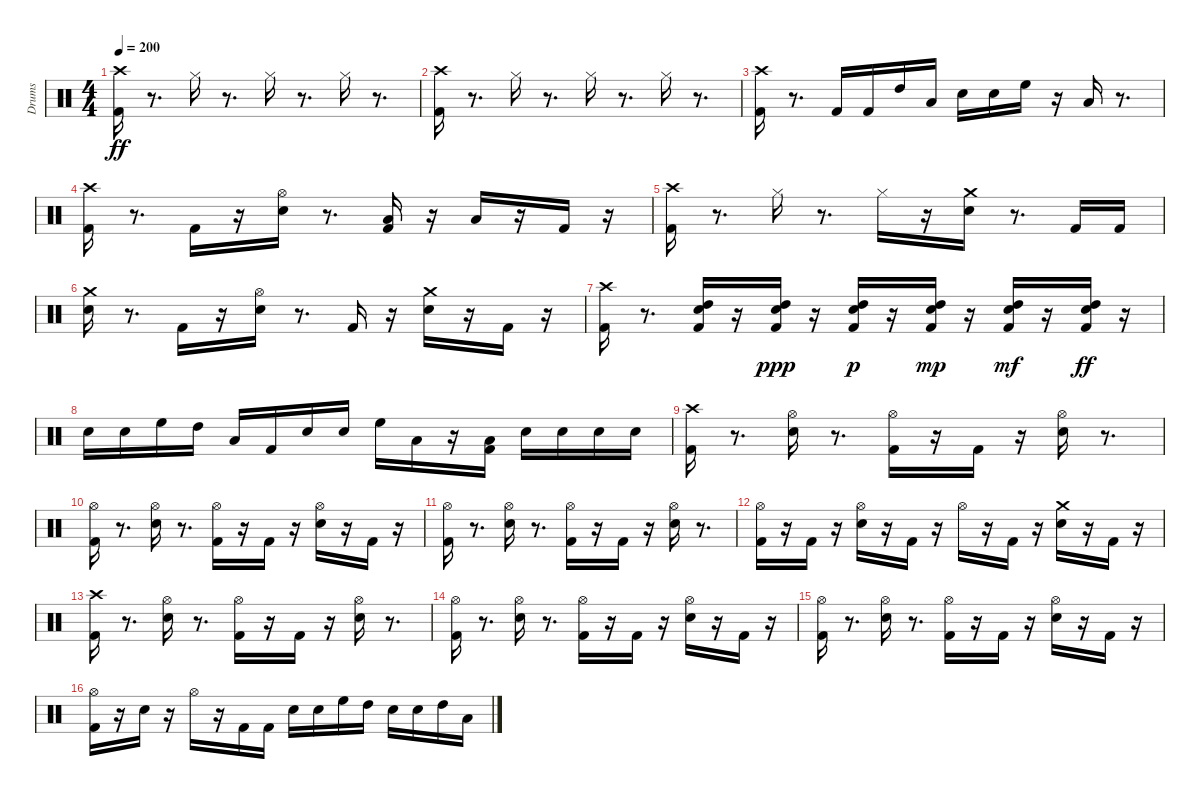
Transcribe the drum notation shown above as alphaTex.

\track ("Drums" "Drums") {instrument percussion}
\staff {score}
\articulation defaults
\ts (4 4)
\tempo 200
\clef neutral
\ks c
("Kick (hit) 2" "Crash high (hit)").16{dy ff} r.8{d} "Hi-Hat (closed)".16 r.8{d} "Hi-Hat (closed)".16 r.8{d} "Hi-Hat (closed)".16 r.8{d} |
("Kick (hit) 2" "Crash high (hit)").16 r.8{d} "Hi-Hat (closed)".16 r.8{d} "Hi-Hat (closed)".16 r.8{d} "Hi-Hat (closed)".16 r.8{d} |
("Kick (hit) 2" "Crash high (hit)").16 r.8{d} "Kick (hit) 2".16 "Kick (hit) 2".16 "High Tom (hit)".16 "Low Tom (hit)".16 "Snare (hit) 2".16 "Snare (hit) 2".16 "High Floor Tom (hit)".16 r.16 "Low Tom (hit)".16 r.8{d} |
("Kick (hit) 2" "Crash high (hit)").16 r.8{d} "Kick (hit) 2".16 r.16 ("Snare (hit) 2" "Hi-Hat (open)").16 r.8{d} ("Kick (hit) 2" "Low Tom (hit)").16 r.16 "Low Floor Tom (hit)".16 r.16 "Kick (hit) 2".16 r.16 |
("Kick (hit) 2" "Crash high (hit)").16 r.8{d} "Hi-Hat (closed)".16 r.8{d} "Hi-Hat (closed)".16 r.16 ("Snare (hit) 2" "Crash medium (hit)").16 r.8{d} "Kick (hit) 2".16 "Kick (hit) 2".16 |
("Snare (hit) 2" "Crash medium (hit)").16 r.8{d} "Kick (hit) 2".16 r.16 ("Snare (hit) 2" "Hi-Hat (open)").16 r.8{d} "Kick (hit) 2".16 r.16 ("Snare (hit) 2" "Crash medium (hit)").16 r.16 "Kick (hit) 2".16 r.16 |
("Kick (hit) 2" "Crash high (hit)").16 r.8{d} ("Kick (hit) 2" "Snare (hit) 2" "High Tom (hit)").16 r.16 ("Kick (hit) 2" "Snare (hit) 2" "High Tom (hit)").16{dy ppp} r.16 ("Kick (hit) 2" "Snare (hit) 2" "High Tom (hit)").16{dy p} r.16 ("Kick (hit) 2" "Snare (hit) 2" "High Tom (hit)").16{dy mp} r.16 ("Kick (hit) 2" "Snare (hit) 2" "High Tom (hit)").16{dy mf} r.16 ("Kick (hit) 2" "Snare (hit) 2" "High Tom (hit)").16{dy ff} r.16 |
"Snare (hit) 2".16 "Snare (hit) 2".16 "High Floor Tom (hit)".16 "High Tom (hit)".16 "Low Tom (hit)".16 "Kick (hit) 2".16 "Snare (hit) 2".16 "Snare (hit) 2".16 "High Floor Tom (hit)".16 "Low Tom (hit)".16 r.16 ("Kick (hit) 2" "Low Floor Tom (hit)").16 "Snare (hit) 2".16 "Snare (hit) 2".16 "Snare (hit) 2".16 "Snare (hit) 2".16 |
("Kick (hit) 2" "Crash high (hit)").16 r.8{d} ("Snare (hit) 2" "Hi-Hat (open)").16 r.8{d} ("Kick (hit) 2" "Hi-Hat (open)").16 r.16 "Kick (hit) 2".16 r.16 ("Snare (hit) 2" "Hi-Hat (open)").16 r.8{d} |
("Kick (hit) 2" "Hi-Hat (open)").16 r.8{d} ("Snare (hit) 2" "Hi-Hat (open)").16 r.8{d} ("Kick (hit) 2" "Hi-Hat (open)").16 r.16 "Kick (hit) 2".16 r.16 ("Snare (hit) 2" "Hi-Hat (open)").16 r.16 "Kick (hit) 2".16 r.16 |
("Kick (hit) 2" "Hi-Hat (open)").16 r.8{d} ("Snare (hit) 2" "Hi-Hat (open)").16 r.8{d} ("Kick (hit) 2" "Hi-Hat (open)").16 r.16 "Kick (hit) 2".16 r.16 ("Snare (hit) 2" "Hi-Hat (open)").16 r.8{d} |
("Kick (hit) 2" "Hi-Hat (open)").16 r.16 "Kick (hit) 2".16 r.16 ("Snare (hit) 2" "Hi-Hat (open)").16 r.16 "Kick (hit) 2".16 r.16 "Hi-Hat (open)".16 r.16 "Kick (hit) 2".16 r.16 ("Snare (hit) 2" "Crash medium (hit)").16 r.16 "Kick (hit) 2".16 r.16 |
("Kick (hit) 2" "Crash high (hit)").16 r.8{d} ("Snare (hit) 2" "Hi-Hat (open)").16 r.8{d} ("Kick (hit) 2" "Hi-Hat (open)").16 r.16 "Kick (hit) 2".16 r.16 ("Snare (hit) 2" "Hi-Hat (open)").16 r.8{d} |
("Kick (hit) 2" "Hi-Hat (open)").16 r.8{d} ("Snare (hit) 2" "Hi-Hat (open)").16 r.8{d} ("Kick (hit) 2" "Hi-Hat (open)").16 r.16 "Kick (hit) 2".16 r.16 ("Snare (hit) 2" "Hi-Hat (open)").16 r.16 "Kick (hit) 2".16 r.16 |
("Kick (hit) 2" "Hi-Hat (open)").16 r.8{d} ("Snare (hit) 2" "Hi-Hat (open)").16 r.8{d} ("Kick (hit) 2" "Hi-Hat (open)").16 r.16 "Kick (hit) 2".16 r.16 ("Snare (hit) 2" "Hi-Hat (open)").16 r.16 "Kick (hit) 2".16 r.16 |
("Kick (hit) 2" "Hi-Hat (open)").16 r.16 "Snare (hit) 2".16 r.16 "Hi-Hat (open)".16 r.16 "Kick (hit) 2".16 "Kick (hit) 2".16 "Snare (hit) 2".16 "Snare (hit) 2".16 "High Floor Tom (hit)".16 "High Tom (hit)".16 "Snare (hit) 2".16 "Snare (hit) 2".16 "High Tom (hit)".16 "Low Tom (hit)".16
